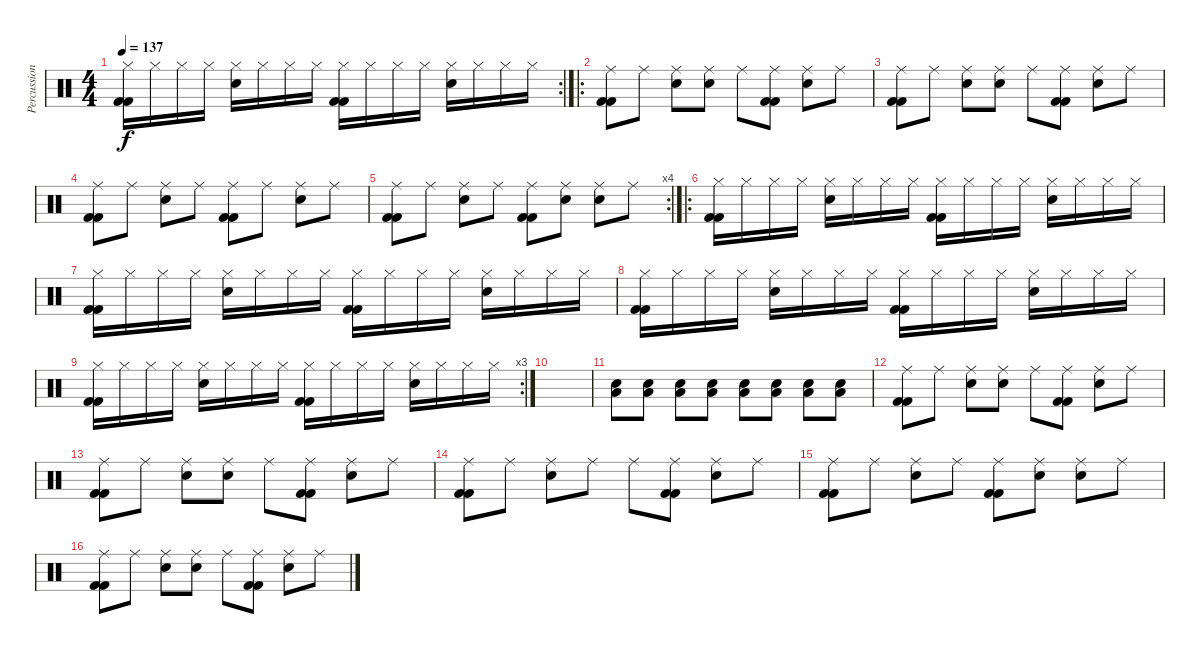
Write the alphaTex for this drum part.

\track ("Percussions" "Percussion") {instrument percussion}
\staff {score}
\articulation defaults
\rc 2
\ts (4 4)
\tempo 137
\clef neutral
\ks c
("Kick (hit) 2" "Kick (hit) 2" "Hi-Hat (closed)").16{dy f} "Hi-Hat (closed)".16 "Hi-Hat (closed)".16 "Hi-Hat (closed)".16 ("Snare (hit) 2" "Hi-Hat (closed)").16 "Hi-Hat (closed)".16 "Hi-Hat (closed)".16 "Hi-Hat (closed)".16 ("Kick (hit) 2" "Kick (hit) 2" "Hi-Hat (closed)").16 "Hi-Hat (closed)".16 "Hi-Hat (closed)".16 "Hi-Hat (closed)".16 ("Snare (hit) 2" "Hi-Hat (closed)").16 "Hi-Hat (closed)".16 "Hi-Hat (closed)".16 "Hi-Hat (closed)".16 |
\ro
("Kick (hit) 2" "Kick (hit) 2" "Ride (middle)").8 "Ride (middle)".8 ("Snare (hit) 2" "Ride (middle)").8 ("Snare (hit) 2" "Ride (middle)").8 "Ride (middle)".8 ("Kick (hit) 2" "Kick (hit) 2" "Ride (middle)").8 ("Snare (hit) 2" "Ride (middle)").8 "Ride (middle)".8 |
("Kick (hit) 2" "Kick (hit) 2" "Ride (middle)").8 "Ride (middle)".8 ("Snare (hit) 2" "Ride (middle)").8 ("Snare (hit) 2" "Ride (middle)").8 "Ride (middle)".8 ("Kick (hit) 2" "Kick (hit) 2" "Ride (middle)").8 ("Snare (hit) 2" "Ride (middle)").8 "Ride (middle)".8 |
("Kick (hit) 2" "Kick (hit) 2" "Ride (middle)").8 "Ride (middle)".8 ("Snare (hit) 2" "Ride (middle)").8 "Ride (middle)".8 ("Kick (hit) 2" "Kick (hit) 2" "Ride (middle)").8 "Ride (middle)".8 ("Snare (hit) 2" "Ride (middle)").8 "Ride (middle)".8 |
\rc 4
("Kick (hit) 2" "Kick (hit) 2" "Ride (middle)").8 "Ride (middle)".8 ("Snare (hit) 2" "Ride (middle)").8 "Ride (middle)".8 ("Kick (hit) 2" "Kick (hit) 2" "Ride (middle)").8 ("Snare (hit) 2" "Ride (middle)").8 ("Snare (hit) 2" "Ride (middle)").8 "Ride (middle)".8 |
\ro
("Kick (hit) 2" "Kick (hit) 2" "Hi-Hat (closed)").16 "Hi-Hat (closed)".16 "Hi-Hat (closed)".16 "Hi-Hat (closed)".16 ("Snare (hit) 2" "Hi-Hat (closed)").16 "Hi-Hat (closed)".16 "Hi-Hat (closed)".16 "Hi-Hat (closed)".16 ("Kick (hit) 2" "Kick (hit) 2" "Hi-Hat (closed)").16 "Hi-Hat (closed)".16 "Hi-Hat (closed)".16 "Hi-Hat (closed)".16 ("Snare (hit) 2" "Hi-Hat (closed)").16 "Hi-Hat (closed)".16 "Hi-Hat (closed)".16 "Hi-Hat (closed)".16 |
("Kick (hit) 2" "Kick (hit) 2" "Hi-Hat (closed)").16 "Hi-Hat (closed)".16 "Hi-Hat (closed)".16 "Hi-Hat (closed)".16 ("Snare (hit) 2" "Hi-Hat (closed)").16 "Hi-Hat (closed)".16 "Hi-Hat (closed)".16 "Hi-Hat (closed)".16 ("Kick (hit) 2" "Kick (hit) 2" "Hi-Hat (closed)").16 "Hi-Hat (closed)".16 "Hi-Hat (closed)".16 "Hi-Hat (closed)".16 ("Snare (hit) 2" "Hi-Hat (closed)").16 "Hi-Hat (closed)".16 "Hi-Hat (closed)".16 "Hi-Hat (closed)".16 |
("Kick (hit) 2" "Kick (hit) 2" "Hi-Hat (closed)").16 "Hi-Hat (closed)".16 "Hi-Hat (closed)".16 "Hi-Hat (closed)".16 ("Snare (hit) 2" "Hi-Hat (closed)").16 "Hi-Hat (closed)".16 "Hi-Hat (closed)".16 "Hi-Hat (closed)".16 ("Kick (hit) 2" "Kick (hit) 2" "Hi-Hat (closed)").16 "Hi-Hat (closed)".16 "Hi-Hat (closed)".16 "Hi-Hat (closed)".16 ("Snare (hit) 2" "Hi-Hat (closed)").16 "Hi-Hat (closed)".16 "Hi-Hat (closed)".16 "Hi-Hat (closed)".16 |
\rc 3
("Kick (hit) 2" "Kick (hit) 2" "Hi-Hat (closed)").16 "Hi-Hat (closed)".16 "Hi-Hat (closed)".16 "Hi-Hat (closed)".16 ("Snare (hit) 2" "Hi-Hat (closed)").16 "Hi-Hat (closed)".16 "Hi-Hat (closed)".16 "Hi-Hat (closed)".16 ("Kick (hit) 2" "Kick (hit) 2" "Hi-Hat (closed)").16 "Hi-Hat (closed)".16 "Hi-Hat (closed)".16 "Hi-Hat (closed)".16 ("Snare (hit) 2" "Hi-Hat (closed)").16 "Hi-Hat (closed)".16 "Hi-Hat (closed)".16 "Hi-Hat (closed)".16 |
|
("Snare (hit) 2" "Low Tom (hit)").8 ("Snare (hit) 2" "Low Tom (hit)").8 ("Snare (hit) 2" "Low Tom (hit)").8 ("Snare (hit) 2" "Low Tom (hit)").8 ("Snare (hit) 2" "Low Tom (hit)").8 ("Snare (hit) 2" "Low Tom (hit)").8 ("Snare (hit) 2" "Low Tom (hit)").8 ("Snare (hit) 2" "Low Tom (hit)").8 |
("Kick (hit) 2" "Kick (hit) 2" "Ride (middle)").8 "Ride (middle)".8 ("Snare (hit) 2" "Ride (middle)").8 ("Snare (hit) 2" "Ride (middle)").8 "Ride (middle)".8 ("Kick (hit) 2" "Kick (hit) 2" "Ride (middle)").8 ("Snare (hit) 2" "Ride (middle)").8 "Ride (middle)".8 |
("Kick (hit) 2" "Kick (hit) 2" "Ride (middle)").8 "Ride (middle)".8 ("Snare (hit) 2" "Ride (middle)").8 ("Snare (hit) 2" "Ride (middle)").8 "Ride (middle)".8 ("Kick (hit) 2" "Kick (hit) 2" "Ride (middle)").8 ("Snare (hit) 2" "Ride (middle)").8 "Ride (middle)".8 |
("Kick (hit) 2" "Kick (hit) 2" "Ride (middle)").8 "Ride (middle)".8 ("Snare (hit) 2" "Ride (middle)").8 "Ride (middle)".8 "Ride (middle)".8 ("Kick (hit) 2" "Kick (hit) 2" "Ride (middle)").8 ("Snare (hit) 2" "Ride (middle)").8 "Ride (middle)".8 |
("Kick (hit) 2" "Kick (hit) 2" "Ride (middle)").8 "Ride (middle)".8 ("Snare (hit) 2" "Ride (middle)").8 "Ride (middle)".8 ("Kick (hit) 2" "Kick (hit) 2" "Ride (middle)").8 ("Snare (hit) 2" "Ride (middle)").8 ("Snare (hit) 2" "Ride (middle)").8 "Ride (middle)".8 |
("Kick (hit) 2" "Kick (hit) 2" "Ride (middle)").8 "Ride (middle)".8 ("Snare (hit) 2" "Ride (middle)").8 ("Snare (hit) 2" "Ride (middle)").8 "Ride (middle)".8 ("Kick (hit) 2" "Kick (hit) 2" "Ride (middle)").8 ("Snare (hit) 2" "Ride (middle)").8 "Ride (middle)".8
